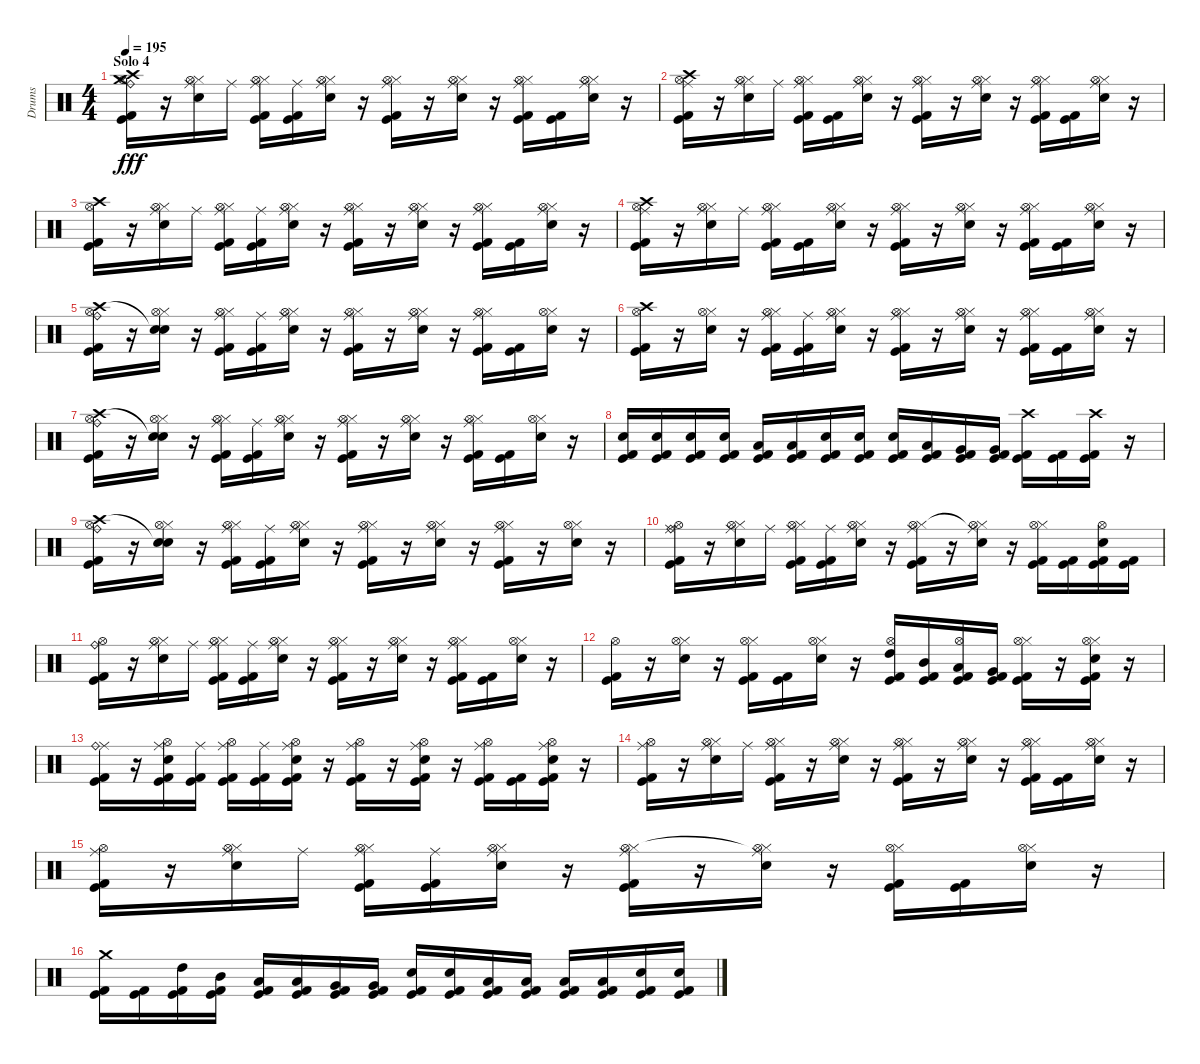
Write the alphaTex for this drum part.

\track ("Drums" "Drums") {instrument percussion}
\staff {score}
\articulation defaults
\ts (4 4)
\section ("" "Solo 4")
\tempo 195
\clef neutral
\ks c
("Kick (hit) 2" "Kick (hit)" "Crash high (hit)" "Ride (bell)" "Hi-Hat (open)" "Crash medium (hit)").16{dy fff} r.16 ("Snare (hit) 2" "Hi-Hat (closed)" "Ride (middle)" "Hi-Hat (open)").16 "Ride (middle)".16 ("Kick (hit) 2" "Kick (hit)" "Hi-Hat (closed)" "Ride (middle)" "Hi-Hat (open)").16 ("Kick (hit) 2" "Kick (hit)" "Ride (middle)").16 ("Snare (hit) 2" "Hi-Hat (closed)" "Ride (middle)" "Hi-Hat (open)").16 r.16 ("Kick (hit) 2" "Kick (hit)" "Hi-Hat (closed)" "Ride (middle)" "Hi-Hat (open)").16 r.16 ("Snare (hit) 2" "Hi-Hat (closed)" "Ride (middle)" "Hi-Hat (open)").16 r.16 ("Kick (hit) 2" "Kick (hit)" "Hi-Hat (closed)" "Ride (middle)" "Hi-Hat (open)").16 ("Kick (hit) 2" "Kick (hit)").16 ("Snare (hit) 2" "Hi-Hat (closed)" "Ride (middle)" "Hi-Hat (open)").16 r.16 |
("Kick (hit) 2" "Kick (hit)" "Crash high (hit)" "Ride (middle)" "Hi-Hat (open)").16 r.16 ("Snare (hit) 2" "Hi-Hat (closed)" "Ride (middle)" "Hi-Hat (open)").16 "Ride (middle)".16 ("Kick (hit) 2" "Kick (hit)" "Hi-Hat (closed)" "Ride (middle)" "Hi-Hat (open)").16 ("Kick (hit) 2" "Kick (hit)").16 ("Snare (hit) 2" "Hi-Hat (closed)" "Ride (middle)" "Hi-Hat (open)").16 r.16 ("Kick (hit) 2" "Kick (hit)" "Hi-Hat (closed)" "Ride (middle)" "Hi-Hat (open)").16 r.16 ("Snare (hit) 2" "Hi-Hat (closed)" "Ride (middle)" "Hi-Hat (open)").16 r.16 ("Kick (hit) 2" "Kick (hit)" "Hi-Hat (closed)" "Ride (middle)" "Hi-Hat (open)").16 ("Kick (hit) 2" "Kick (hit)").16 ("Snare (hit) 2" "Hi-Hat (closed)" "Ride (middle)" "Hi-Hat (open)").16 r.16 |
("Kick (hit) 2" "Kick (hit)" "Crash high (hit)" "Hi-Hat (open)").16 r.16 ("Snare (hit) 2" "Hi-Hat (closed)" "Ride (middle)" "Hi-Hat (open)").16 "Ride (middle)".16 ("Kick (hit) 2" "Kick (hit)" "Hi-Hat (closed)" "Ride (middle)" "Hi-Hat (open)").16 ("Kick (hit) 2" "Kick (hit)" "Ride (middle)").16 ("Snare (hit) 2" "Hi-Hat (closed)" "Ride (middle)" "Hi-Hat (open)").16 r.16 ("Kick (hit) 2" "Kick (hit)" "Hi-Hat (closed)" "Ride (middle)" "Hi-Hat (open)").16 r.16 ("Snare (hit) 2" "Hi-Hat (closed)" "Ride (middle)" "Hi-Hat (open)").16 r.16 ("Kick (hit) 2" "Kick (hit)" "Hi-Hat (closed)" "Ride (middle)" "Hi-Hat (open)").16 ("Kick (hit) 2" "Kick (hit)").16 ("Snare (hit) 2" "Hi-Hat (closed)" "Ride (middle)" "Hi-Hat (open)").16 r.16 |
("Kick (hit) 2" "Kick (hit)" "Crash high (hit)" "Ride (middle)" "Hi-Hat (open)").16 r.16 ("Snare (hit) 2" "Hi-Hat (closed)" "Ride (middle)" "Hi-Hat (open)").16 "Ride (middle)".16 ("Kick (hit) 2" "Kick (hit)" "Hi-Hat (closed)" "Ride (middle)" "Hi-Hat (open)").16 ("Kick (hit) 2" "Kick (hit)").16 ("Snare (hit) 2" "Hi-Hat (closed)" "Ride (middle)" "Hi-Hat (open)").16 r.16 ("Kick (hit) 2" "Kick (hit)" "Hi-Hat (closed)" "Ride (middle)" "Hi-Hat (open)").16 r.16 ("Snare (hit) 2" "Hi-Hat (closed)" "Ride (middle)" "Hi-Hat (open)").16 r.16 ("Kick (hit) 2" "Kick (hit)" "Hi-Hat (closed)" "Ride (middle)" "Hi-Hat (open)").16 ("Kick (hit) 2" "Kick (hit)").16 ("Snare (hit) 2" "Hi-Hat (closed)" "Ride (middle)" "Hi-Hat (open)").16 r.16 |
("Kick (hit) 2" "Kick (hit)" "Crash high (hit)" "Ride (bell)" "Hi-Hat (open)").16 r.16 ("Snare (hit) 2" "Hi-Hat (closed)" "Snare (hit)"{t} "Hi-Hat (open)").16 r.16 ("Kick (hit) 2" "Kick (hit)" "Hi-Hat (closed)" "Ride (middle)" "Hi-Hat (open)").16 ("Kick (hit) 2" "Kick (hit)" "Ride (middle)").16 ("Snare (hit) 2" "Hi-Hat (closed)" "Ride (middle)" "Hi-Hat (open)").16 r.16 ("Kick (hit) 2" "Kick (hit)" "Hi-Hat (closed)" "Ride (middle)" "Hi-Hat (open)").16 r.16 ("Snare (hit) 2" "Hi-Hat (closed)" "Ride (middle)" "Hi-Hat (open)").16 r.16 ("Kick (hit) 2" "Kick (hit)" "Hi-Hat (closed)" "Ride (middle)" "Hi-Hat (open)").16 ("Kick (hit) 2" "Kick (hit)").16 ("Snare (hit) 2" "Hi-Hat (closed)" "Hi-Hat (open)").16 r.16 |
("Kick (hit) 2" "Kick (hit)" "Crash high (hit)" "Hi-Hat (open)").16 r.16 ("Snare (hit) 2" "Hi-Hat (closed)" "Hi-Hat (open)").16 r.16 ("Kick (hit) 2" "Kick (hit)" "Hi-Hat (closed)" "Ride (middle)" "Hi-Hat (open)").16 ("Kick (hit) 2" "Kick (hit)" "Ride (middle)").16 ("Snare (hit) 2" "Hi-Hat (closed)" "Ride (middle)" "Hi-Hat (open)").16 r.16 ("Kick (hit) 2" "Kick (hit)" "Hi-Hat (closed)" "Ride (middle)" "Hi-Hat (open)").16 r.16 ("Snare (hit) 2" "Hi-Hat (closed)" "Ride (middle)" "Hi-Hat (open)").16 r.16 ("Kick (hit) 2" "Kick (hit)" "Hi-Hat (closed)" "Ride (middle)" "Hi-Hat (open)").16 ("Kick (hit) 2" "Kick (hit)").16 ("Snare (hit) 2" "Hi-Hat (closed)" "Ride (middle)" "Hi-Hat (open)").16 r.16 |
("Kick (hit) 2" "Kick (hit)" "Crash high (hit)" "Ride (bell)" "Hi-Hat (open)").16 r.16 ("Snare (hit) 2" "Hi-Hat (closed)" "Snare (hit)"{t} "Hi-Hat (open)").16 r.16 ("Kick (hit) 2" "Kick (hit)" "Hi-Hat (closed)" "Ride (middle)" "Hi-Hat (open)").16 ("Kick (hit) 2" "Kick (hit)" "Ride (middle)").16 ("Snare (hit) 2" "Hi-Hat (closed)" "Ride (middle)" "Hi-Hat (open)").16 r.16 ("Kick (hit) 2" "Kick (hit)" "Hi-Hat (closed)" "Ride (middle)" "Hi-Hat (open)").16 r.16 ("Snare (hit) 2" "Hi-Hat (closed)" "Ride (middle)" "Hi-Hat (open)").16 r.16 ("Kick (hit) 2" "Kick (hit)" "Hi-Hat (closed)" "Ride (middle)" "Hi-Hat (open)").16 ("Kick (hit) 2" "Kick (hit)").16 ("Snare (hit) 2" "Hi-Hat (closed)" "Hi-Hat (open)").16 r.16 |
("Kick (hit) 2" "Kick (hit)" "Snare (hit) 2").16 ("Kick (hit) 2" "Kick (hit)" "Snare (hit) 2").16 ("Kick (hit) 2" "Kick (hit)" "Snare (hit) 2").16 ("Kick (hit) 2" "Kick (hit)" "Snare (hit) 2").16 ("Kick (hit) 2" "Kick (hit)" "Low Floor Tom (hit)").16 ("Kick (hit) 2" "Kick (hit)" "Low Floor Tom (hit)").16 ("Kick (hit) 2" "Kick (hit)" "Snare (hit) 2").16 ("Kick (hit) 2" "Kick (hit)" "Snare (hit) 2").16 ("Kick (hit) 2" "Kick (hit)" "Snare (hit) 2").16 ("Kick (hit) 2" "Kick (hit)" "Low Tom (hit)").16 ("Kick (hit) 2" "Kick (hit)" "Very Low Tom (hit)").16 ("Kick (hit) 2" "Kick (hit)" "Very Low Tom (hit)").16 ("Kick (hit) 2" "Kick (hit)" "Crash high (hit)").16 ("Kick (hit) 2" "Kick (hit)").16 ("Kick (hit) 2" "Kick (hit)" "Crash high (hit)").16 r.16 |
("Kick (hit) 2" "Kick (hit)" "Crash high (hit)" "Ride (bell)" "Hi-Hat (open)").16 r.16 ("Snare (hit) 2" "Hi-Hat (closed)" "Snare (hit)"{t} "Hi-Hat (open)").16 r.16 ("Kick (hit) 2" "Kick (hit)" "Hi-Hat (closed)" "Ride (middle)" "Hi-Hat (open)").16 ("Kick (hit) 2" "Kick (hit)" "Ride (middle)").16 ("Snare (hit) 2" "Hi-Hat (closed)" "Ride (middle)" "Hi-Hat (open)").16 r.16 ("Kick (hit) 2" "Kick (hit)" "Hi-Hat (closed)" "Ride (middle)" "Hi-Hat (open)").16 r.16 ("Snare (hit) 2" "Hi-Hat (closed)" "Ride (middle)" "Hi-Hat (open)").16 r.16 ("Kick (hit) 2" "Kick (hit)" "Hi-Hat (closed)" "Ride (middle)" "Hi-Hat (open)").16 r.16 ("Snare (hit) 2" "Hi-Hat (closed)" "Hi-Hat (open)").16 r.16 |
("Kick (hit) 2" "Kick (hit)" "Ride (middle)" "Hi-Hat (open)" "Ride (bell)").16 r.16 ("Snare (hit) 2" "Hi-Hat (closed)" "Ride (middle)" "Hi-Hat (open)").16 "Ride (middle)".16 ("Kick (hit) 2" "Kick (hit)" "Hi-Hat (closed)" "Ride (middle)" "Hi-Hat (open)").16 ("Kick (hit) 2" "Kick (hit)" "Ride (middle)").16 ("Snare (hit) 2" "Hi-Hat (closed)" "Ride (middle)" "Hi-Hat (open)").16 r.16 ("Kick (hit) 2" "Kick (hit)" "Hi-Hat (closed)" "Ride (middle)" "Hi-Hat (open)").16 r.16 ("Snare (hit) 2" "Hi-Hat (closed)" "Ride (middle)"{t} "Hi-Hat (open)").16 r.16 ("Kick (hit) 2" "Kick (hit)" "Hi-Hat (closed)" "Hi-Hat (open)").16 ("Kick (hit) 2" "Kick (hit)").16 ("Kick (hit) 2" "Kick (hit)" "Snare (hit) 2" "Hi-Hat (open)").16 ("Kick (hit) 2" "Kick (hit)").16 |
("Kick (hit) 2" "Kick (hit)" "Ride (bell)" "Hi-Hat (open)").16 r.16 ("Snare (hit) 2" "Hi-Hat (closed)" "Ride (middle)" "Hi-Hat (open)").16 "Ride (middle)".16 ("Kick (hit) 2" "Kick (hit)" "Hi-Hat (closed)" "Ride (middle)" "Hi-Hat (open)").16 ("Kick (hit) 2" "Kick (hit)" "Ride (middle)").16 ("Snare (hit) 2" "Hi-Hat (closed)" "Ride (middle)" "Hi-Hat (open)").16 r.16 ("Kick (hit) 2" "Kick (hit)" "Hi-Hat (closed)" "Ride (middle)" "Hi-Hat (open)").16 r.16 ("Snare (hit) 2" "Hi-Hat (closed)" "Ride (middle)" "Hi-Hat (open)").16 r.16 ("Kick (hit) 2" "Kick (hit)" "Hi-Hat (closed)" "Ride (middle)" "Hi-Hat (open)").16 ("Kick (hit) 2" "Kick (hit)").16 ("Snare (hit) 2" "Hi-Hat (closed)" "Hi-Hat (open)").16 r.16 |
("Kick (hit) 2" "Kick (hit)" "Hi-Hat (open)").16 r.16 ("Snare (hit) 2" "Hi-Hat (closed)" "Hi-Hat (open)").16 r.16 ("Kick (hit) 2" "Kick (hit)" "Hi-Hat (closed)" "Hi-Hat (open)").16 ("Kick (hit) 2" "Kick (hit)").16 ("Snare (hit) 2" "Hi-Hat (closed)" "Hi-Hat (open)").16 r.16 ("Kick (hit) 2" "Kick (hit)" "High Tom (hit)" "Hi-Hat (open)").16 ("Kick (hit) 2" "Kick (hit)" "Mid Tom (hit)").16 ("Kick (hit) 2" "Kick (hit)" "Low Tom (hit)" "Hi-Hat (open)").16 ("Kick (hit) 2" "Kick (hit)" "Very Low Tom (hit)").16 ("Kick (hit) 2" "Kick (hit)" "Hi-Hat (closed)" "Hi-Hat (open)").16 r.16 ("Kick (hit) 2" "Kick (hit)" "Hi-Hat (closed)" "Snare (hit) 2" "Hi-Hat (open)").16 r.16 |
("Kick (hit) 2" "Kick (hit)" "Ride (middle)" "Ride (bell)").16 r.16 ("Kick (hit) 2" "Kick (hit)" "Snare (hit) 2" "Ride (middle)" "Hi-Hat (open)").16 ("Kick (hit) 2" "Kick (hit)" "Ride (middle)").16 ("Kick (hit) 2" "Kick (hit)" "Ride (middle)" "Hi-Hat (open)").16 ("Kick (hit) 2" "Kick (hit)" "Ride (middle)").16 ("Kick (hit) 2" "Kick (hit)" "Snare (hit) 2" "Ride (middle)" "Hi-Hat (open)").16 r.16 ("Kick (hit) 2" "Kick (hit)" "Ride (middle)" "Hi-Hat (open)").16 r.16 ("Kick (hit) 2" "Kick (hit)" "Snare (hit) 2" "Ride (middle)" "Hi-Hat (open)").16 r.16 ("Kick (hit) 2" "Kick (hit)" "Ride (middle)" "Hi-Hat (open)").16 ("Kick (hit) 2" "Kick (hit)").16 ("Kick (hit) 2" "Kick (hit)" "Snare (hit) 2" "Ride (middle)" "Hi-Hat (open)").16 r.16 |
("Kick (hit) 2" "Kick (hit)" "Ride (middle)" "Hi-Hat (open)").16 r.16 ("Snare (hit) 2" "Hi-Hat (closed)" "Ride (middle)" "Hi-Hat (open)").16 "Ride (middle)".16 ("Kick (hit) 2" "Kick (hit)" "Hi-Hat (closed)" "Ride (middle)" "Hi-Hat (open)").16 r.16 ("Snare (hit) 2" "Hi-Hat (closed)" "Ride (middle)" "Hi-Hat (open)").16 r.16 ("Kick (hit) 2" "Kick (hit)" "Hi-Hat (closed)" "Ride (middle)" "Hi-Hat (open)").16 r.16 ("Snare (hit) 2" "Hi-Hat (closed)" "Ride (middle)" "Hi-Hat (open)").16 r.16 ("Kick (hit) 2" "Kick (hit)" "Hi-Hat (closed)" "Ride (middle)" "Hi-Hat (open)").16 ("Kick (hit) 2" "Kick (hit)").16 ("Snare (hit) 2" "Hi-Hat (closed)" "Ride (middle)" "Hi-Hat (open)").16 r.16 |
("Kick (hit) 2" "Kick (hit)" "Ride (middle)" "Hi-Hat (open)").16 r.16 ("Snare (hit) 2" "Hi-Hat (closed)" "Ride (middle)" "Hi-Hat (open)").16 "Ride (middle)".16 ("Kick (hit) 2" "Kick (hit)" "Hi-Hat (closed)" "Ride (middle)" "Hi-Hat (open)").16 ("Kick (hit) 2" "Kick (hit)" "Ride (middle)").16 ("Snare (hit) 2" "Hi-Hat (closed)" "Ride (middle)" "Hi-Hat (open)").16 r.16 ("Kick (hit) 2" "Kick (hit)" "Hi-Hat (closed)" "Ride (middle)" "Hi-Hat (open)").16 r.16 ("Snare (hit) 2" "Hi-Hat (closed)" "Ride (middle)"{t} "Hi-Hat (open)").16 r.16 ("Kick (hit) 2" "Kick (hit)" "Hi-Hat (closed)" "Hi-Hat (open)").16 ("Kick (hit) 2" "Kick (hit)").16 ("Snare (hit) 2" "Hi-Hat (closed)" "Hi-Hat (open)").16 r.16 |
("Kick (hit) 2" "Kick (hit)" "Crash medium (hit)").16 ("Kick (hit) 2" "Kick (hit)").16 ("Kick (hit) 2" "Kick (hit)" "High Tom (hit)").16 ("Kick (hit) 2" "Kick (hit)" "Mid Tom (hit)").16 ("Kick (hit) 2" "Kick (hit)" "Low Tom (hit)").16 ("Kick (hit) 2" "Kick (hit)" "Low Tom (hit)").16 ("Kick (hit) 2" "Kick (hit)" "Very Low Tom (hit)").16 ("Kick (hit) 2" "Kick (hit)" "Very Low Tom (hit)").16 ("Kick (hit) 2" "Kick (hit)" "Snare (hit) 2").16 ("Kick (hit) 2" "Kick (hit)" "Snare (hit) 2").16 ("Kick (hit) 2" "Kick (hit)" "Low Tom (hit)").16 ("Kick (hit) 2" "Kick (hit)" "Low Floor Tom (hit)").16 ("Kick (hit) 2" "Kick (hit)" "Low Floor Tom (hit)").16 ("Kick (hit) 2" "Kick (hit)" "Low Floor Tom (hit)").16 ("Kick (hit) 2" "Kick (hit)" "Snare (hit) 2").16 ("Kick (hit) 2" "Kick (hit)" "Snare (hit) 2").16
